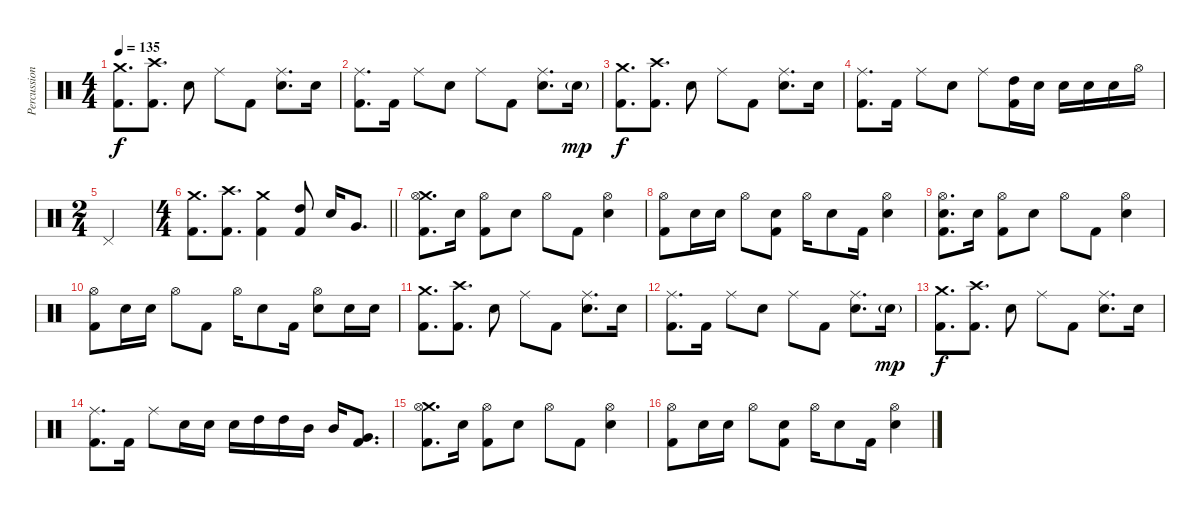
\track ("Percussions" "Percussion") {instrument percussion}
\staff {score}
\articulation defaults
\ts (4 4)
\tempo 135
\clef neutral
\ks c
("Crash medium (hit)" "Kick (hit) 2").8{d dy f} ("Crash high (hit)" "Kick (hit) 2").8{d} "Electric Snare (hit)".8 "Ride (middle)".8 "Kick (hit) 2".8 ("Ride (middle)" "Electric Snare (hit)").8{d} "Electric Snare (hit)".16 |
("Ride (middle)" "Kick (hit) 2").8{d} "Kick (hit) 2".16 "Ride (middle)".8 "Electric Snare (hit)".8 "Ride (middle)".8 "Kick (hit) 2".8 ("Ride (middle)" "Electric Snare (hit)").8{d} "Electric Snare (hit)"{g}.16{dy mp} |
("Crash medium (hit)" "Kick (hit) 2").8{d dy f} ("Crash high (hit)" "Kick (hit) 2").8{d} "Electric Snare (hit)".8 "Ride (middle)".8 "Kick (hit) 2".8 ("Ride (middle)" "Electric Snare (hit)").8{d} "Electric Snare (hit)".16 |
("Ride (middle)" "Kick (hit) 2").8{d} "Kick (hit) 2".16 "Ride (middle)".8 "Electric Snare (hit)".8 "Ride (middle)".8 ("High Tom (hit)" "Kick (hit) 2").16 "Electric Snare (hit)".16 "Electric Snare (hit)".16 "Electric Snare (hit)".16 "Electric Snare (hit)".16 "Hi-Hat (open)".16 |
\ts (2 4)
"Pedal Hi-Hat (hit)".2 |
\ts (4 4)
\barLineRight lightlight
("Crash medium (hit)" "Kick (hit) 2").8{d} ("Crash high (hit)" "Kick (hit) 2").8{d} ("Crash medium (hit)" "Kick (hit) 2").4 ("High Tom (hit)" "Kick (hit) 2").8 "Electric Snare (hit)".16 "Very Low Tom (hit)".8{d} |
("Crash medium (hit)" "Hi-Hat (open)" "Kick (hit) 2").8{d} "Electric Snare (hit)".16 ("Hi-Hat (open)" "Kick (hit) 2").8 "Electric Snare (hit)".8 "Hi-Hat (open)".8 "Kick (hit) 2".8 ("Hi-Hat (open)" "Electric Snare (hit)").4 |
("Hi-Hat (open)" "Kick (hit) 2").8 "Electric Snare (hit)".16 "Electric Snare (hit)".16 "Hi-Hat (open)".8 ("Electric Snare (hit)" "Kick (hit) 2").8 "Hi-Hat (open)".16 "Electric Snare (hit)".8 "Kick (hit) 2".16 ("Hi-Hat (open)" "Electric Snare (hit)").4 |
("Hi-Hat (open)" "Electric Snare (hit)" "Kick (hit) 2").8{d} "Electric Snare (hit)".16 ("Hi-Hat (open)" "Kick (hit) 2").8 "Electric Snare (hit)".8 "Hi-Hat (open)".8 "Kick (hit) 2".8 ("Hi-Hat (open)" "Electric Snare (hit)").4 |
("Hi-Hat (open)" "Kick (hit) 2").8 "Electric Snare (hit)".16 "Electric Snare (hit)".16 "Hi-Hat (open)".8 "Kick (hit) 2".8 "Hi-Hat (open)".16 "Electric Snare (hit)".8 "Kick (hit) 2".16 ("Hi-Hat (open)" "Electric Snare (hit)").8 "Electric Snare (hit)".16 "Electric Snare (hit)".16 |
("Crash medium (hit)" "Kick (hit) 2").8{d} ("Crash high (hit)" "Kick (hit) 2").8{d} "Electric Snare (hit)".8 "Ride (middle)".8 "Kick (hit) 2".8 ("Ride (middle)" "Electric Snare (hit)").8{d} "Electric Snare (hit)".16 |
("Ride (middle)" "Kick (hit) 2").8{d} "Kick (hit) 2".16 "Ride (middle)".8 "Electric Snare (hit)".8 "Ride (middle)".8 "Kick (hit) 2".8 ("Ride (middle)" "Electric Snare (hit)").8{d} "Electric Snare (hit)"{g}.16{dy mp} |
("Crash medium (hit)" "Kick (hit) 2").8{d dy f} ("Crash high (hit)" "Kick (hit) 2").8{d} "Electric Snare (hit)".8 "Ride (middle)".8 "Kick (hit) 2".8 ("Ride (middle)" "Electric Snare (hit)").8{d} "Electric Snare (hit)".16 |
("Ride (middle)" "Kick (hit) 2").8{d} "Kick (hit) 2".16 "Ride (middle)".8 "Electric Snare (hit)".16 "Electric Snare (hit)".16 "Electric Snare (hit)".16 "High Tom (hit)".16 "High Tom (hit)".16 "Mid Tom (hit)".16 "Mid Tom (hit)".16 ("Very Low Tom (hit)" "Kick (hit) 2").8{d} |
("Crash medium (hit)" "Hi-Hat (open)" "Kick (hit) 2").8{d} "Electric Snare (hit)".16 ("Hi-Hat (open)" "Kick (hit) 2").8 "Electric Snare (hit)".8 "Hi-Hat (open)".8 "Kick (hit) 2".8 ("Hi-Hat (open)" "Electric Snare (hit)").4 |
("Hi-Hat (open)" "Kick (hit) 2").8 "Electric Snare (hit)".16 "Electric Snare (hit)".16 "Hi-Hat (open)".8 ("Electric Snare (hit)" "Kick (hit) 2").8 "Hi-Hat (open)".16 "Electric Snare (hit)".8 "Kick (hit) 2".16 ("Hi-Hat (open)" "Electric Snare (hit)").4
